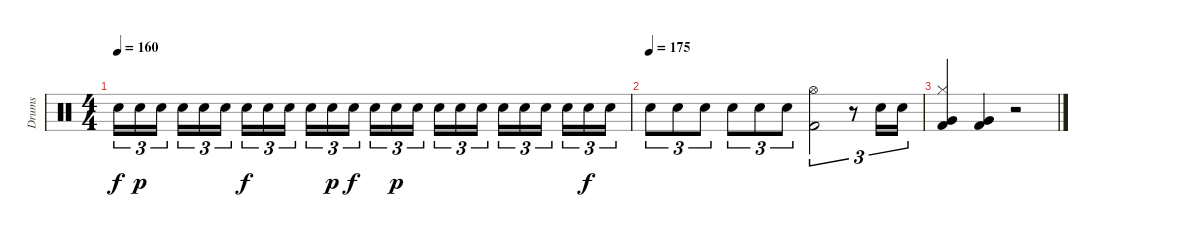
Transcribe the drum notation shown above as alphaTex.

\track ("Drums" "Drums") {instrument percussion}
\staff {score}
\articulation defaults
\ts (4 4)
\tempo 160
\clef neutral
\ks c "Electric Snare (hit)".16{tu (3 2) dy f} "Electric Snare (hit)".16{tu (3 2) dy p} "Electric Snare (hit)".16{tu (3 2)} "Electric Snare (hit)".16{tu (3 2)} "Electric Snare (hit)".16{tu (3 2)} "Electric Snare (hit)".16{tu (3 2)} "Electric Snare (hit)".16{tu (3 2) dy f} "Electric Snare (hit)".16{tu (3 2)} "Electric Snare (hit)".16{tu (3 2)} "Electric Snare (hit)".16{tu (3 2)} "Electric Snare (hit)".16{tu (3 2) dy p} "Electric Snare (hit)".16{tu (3 2) dy f} "Electric Snare (hit)".16{tu (3 2)} "Electric Snare (hit)".16{tu (3 2) dy p} "Electric Snare (hit)".16{tu (3 2)} "Electric Snare (hit)".16{tu (3 2)} "Electric Snare (hit)".16{tu (3 2)} "Electric Snare (hit)".16{tu (3 2)} "Electric Snare (hit)".16{tu (3 2)} "Electric Snare (hit)".16{tu (3 2)} "Electric Snare (hit)".16{tu (3 2)} "Electric Snare (hit)".16{tu (3 2)} "Electric Snare (hit)".16{tu (3 2) dy f} "Electric Snare (hit)".16{tu (3 2)}
|
\tempo (175)
"Electric Snare (hit)".8{tu (3 2)} "Electric Snare (hit)".8{tu (3 2)} "Electric Snare (hit)".8{tu (3 2)} "Electric Snare (hit)".8{tu (3 2)} "Electric Snare (hit)".8{tu (3 2)} "Electric Snare (hit)".8{tu (3 2)} ("Hi-Hat (open)" "Kick (hit) 2").2{tu (3 2)} r.8{tu (3 2)} "Electric Snare (hit)".16{tu (3 2)} "Electric Snare (hit)".16{tu (3 2)} |
("Hi-Hat (closed)" "Very Low Tom (hit)" "Kick (hit) 2").4 ("Very Low Tom (hit)" "Kick (hit) 2").4 r.2
